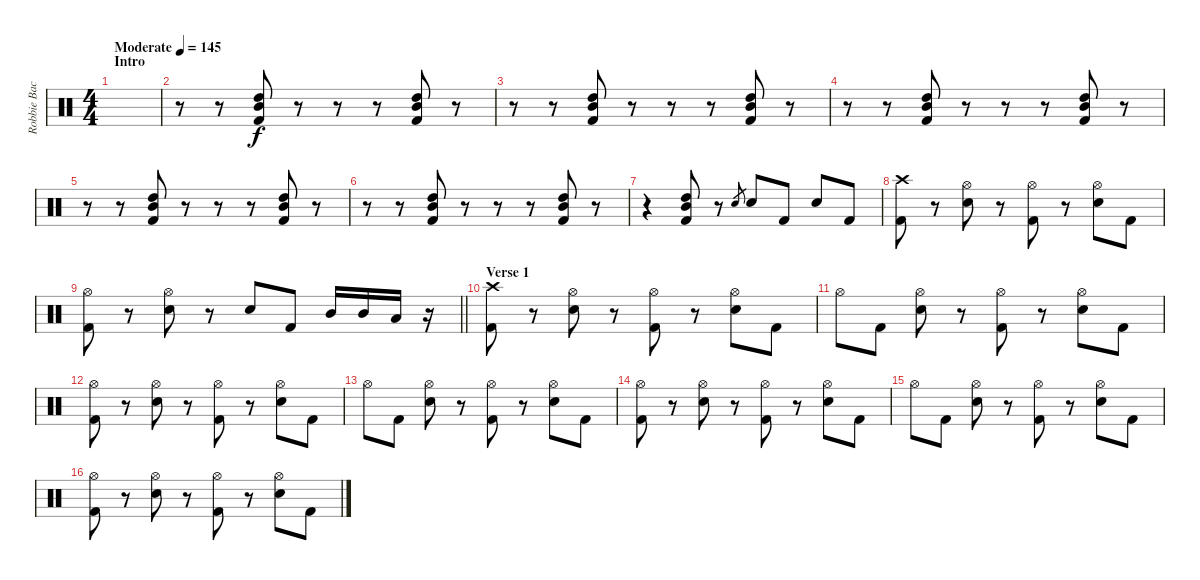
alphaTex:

\track ("Robbie Bachman" "Robbie Bac") {instrument percussion}
\staff {score}
\articulation defaults
\ts (4 4)
\section ("" "Intro")
\tempo (145 "Moderate")
\clef neutral
\ks c
|
r.8 r.8 ("Mid Tom (hit)" "High Tom (hit)" "Kick (hit) 2").8 r.8 r.8 r.8 ("Mid Tom (hit)" "High Tom (hit)" "Kick (hit) 2").8 r.8 |
r.8 r.8 ("Mid Tom (hit)" "High Tom (hit)" "Kick (hit) 2").8 r.8 r.8 r.8 ("Mid Tom (hit)" "High Tom (hit)" "Kick (hit) 2").8 r.8 |
r.8 r.8 ("Mid Tom (hit)" "High Tom (hit)" "Kick (hit) 2").8 r.8 r.8 r.8 ("Mid Tom (hit)" "High Tom (hit)" "Kick (hit) 2").8 r.8 |
r.8 r.8 ("Mid Tom (hit)" "High Tom (hit)" "Kick (hit) 2").8 r.8 r.8 r.8 ("Mid Tom (hit)" "High Tom (hit)" "Kick (hit) 2").8 r.8 |
r.8 r.8 ("Mid Tom (hit)" "High Tom (hit)" "Kick (hit) 2").8 r.8 r.8 r.8 ("Mid Tom (hit)" "High Tom (hit)" "Kick (hit) 2").8 r.8 |
r.4 ("Mid Tom (hit)" "High Tom (hit)" "Kick (hit) 2").8 r.8 "Snare (hit) 2".8{gr} "Snare (hit) 2".8 "Kick (hit) 2".8 "Snare (hit) 2".8 "Kick (hit) 2".8 |
("Crash high (hit)" "Kick (hit) 2").8 r.8 ("Hi-Hat (open)" "Snare (hit) 2").8 r.8 ("Hi-Hat (open)" "Kick (hit) 2").8 r.8 ("Hi-Hat (open)" "Snare (hit) 2").8 "Kick (hit) 2".8 |
\barLineRight lightlight
("Hi-Hat (open)" "Kick (hit) 2").8 r.8 ("Hi-Hat (open)" "Snare (hit) 2").8 r.8 "Snare (hit) 2".8 "Kick (hit) 2".8 "Mid Tom (hit)".16 "Mid Tom (hit)".16 "Low Tom (hit)".16 r.16 |
\section ("" "Verse 1")
("Crash high (hit)" "Kick (hit) 2").8 r.8 ("Hi-Hat (open)" "Snare (hit) 2").8 r.8 ("Hi-Hat (open)" "Kick (hit) 2").8 r.8 ("Hi-Hat (open)" "Snare (hit) 2").8 "Kick (hit) 2".8 |
"Hi-Hat (open)".8 "Kick (hit) 2".8 ("Hi-Hat (open)" "Snare (hit) 2").8 r.8 ("Hi-Hat (open)" "Kick (hit) 2").8 r.8 ("Hi-Hat (open)" "Snare (hit) 2").8 "Kick (hit) 2".8 |
("Hi-Hat (open)" "Kick (hit) 2").8 r.8 ("Hi-Hat (open)" "Snare (hit) 2").8 r.8 ("Hi-Hat (open)" "Kick (hit) 2").8 r.8 ("Hi-Hat (open)" "Snare (hit) 2").8 "Kick (hit) 2".8 |
"Hi-Hat (open)".8 "Kick (hit) 2".8 ("Hi-Hat (open)" "Snare (hit) 2").8 r.8 ("Hi-Hat (open)" "Kick (hit) 2").8 r.8 ("Hi-Hat (open)" "Snare (hit) 2").8 "Kick (hit) 2".8 |
("Hi-Hat (open)" "Kick (hit) 2").8 r.8 ("Hi-Hat (open)" "Snare (hit) 2").8 r.8 ("Hi-Hat (open)" "Kick (hit) 2").8 r.8 ("Hi-Hat (open)" "Snare (hit) 2").8 "Kick (hit) 2".8 |
"Hi-Hat (open)".8 "Kick (hit) 2".8 ("Hi-Hat (open)" "Snare (hit) 2").8 r.8 ("Hi-Hat (open)" "Kick (hit) 2").8 r.8 ("Hi-Hat (open)" "Snare (hit) 2").8 "Kick (hit) 2".8 |
("Hi-Hat (open)" "Kick (hit) 2").8 r.8 ("Hi-Hat (open)" "Snare (hit) 2").8 r.8 ("Hi-Hat (open)" "Kick (hit) 2").8 r.8 ("Hi-Hat (open)" "Snare (hit) 2").8 "Kick (hit) 2".8
